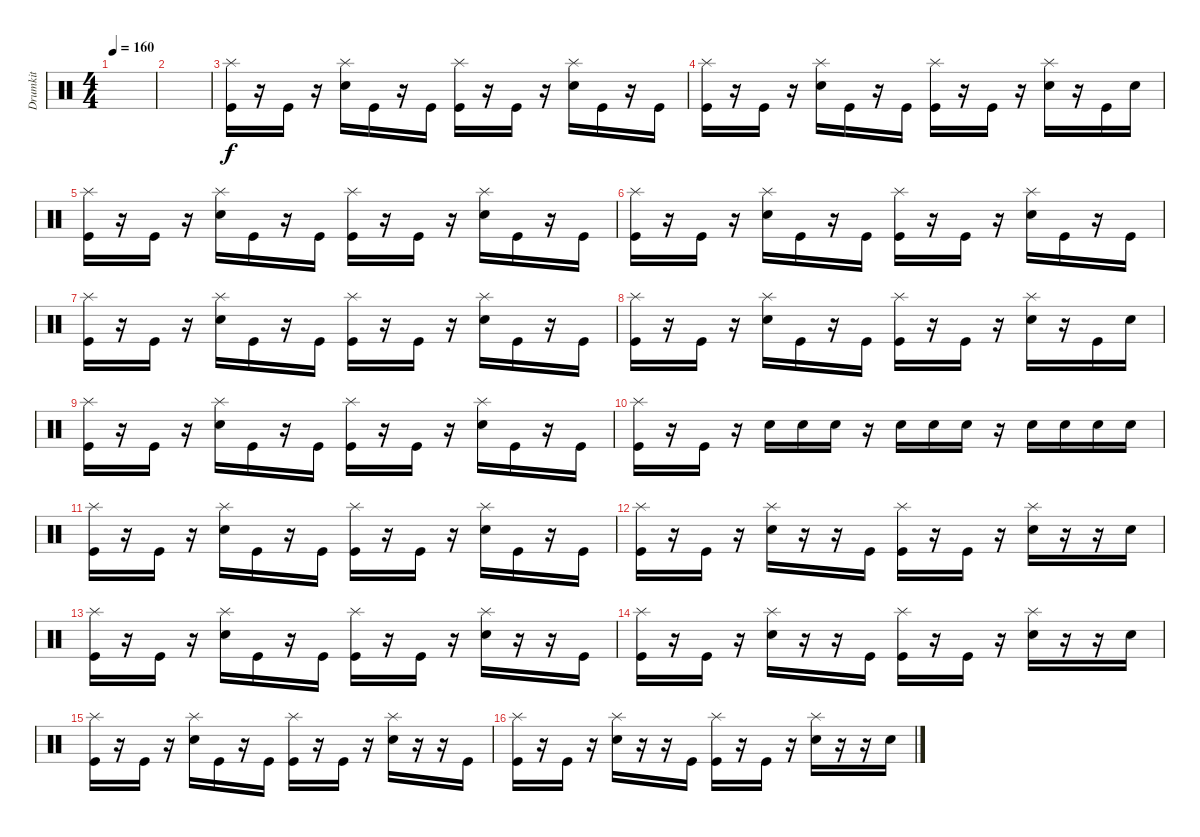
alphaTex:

\track ("Drumkit" "Drumkit") {instrument percussion}
\staff {score}
\articulation defaults
\ts (4 4)
\tempo 160
\clef neutral
\ks c
|
|
("Splash (hit)" "Kick (hit)").16 r.16 "Kick (hit)".16 r.16 ("Snare (hit) 2" "Splash (hit)").16 "Kick (hit)".16 r.16 "Kick (hit)".16 ("Kick (hit)" "Splash (hit)").16 r.16 "Kick (hit)".16 r.16 ("Snare (hit) 2" "Splash (hit)").16 "Kick (hit)".16 r.16 "Kick (hit)".16 |
("Kick (hit)" "Splash (hit)").16 r.16 "Kick (hit)".16 r.16 ("Snare (hit) 2" "Splash (hit)").16 "Kick (hit)".16 r.16 "Kick (hit)".16 ("Kick (hit)" "Splash (hit)").16 r.16 "Kick (hit)".16 r.16 ("Snare (hit) 2" "Splash (hit)").16 r.16 "Kick (hit)".16 "Snare (hit) 2".16 |
("Kick (hit)" "Splash (hit)").16 r.16 "Kick (hit)".16 r.16 ("Snare (hit) 2" "Splash (hit)").16 "Kick (hit)".16 r.16 "Kick (hit)".16 ("Kick (hit)" "Splash (hit)").16 r.16 "Kick (hit)".16 r.16 ("Snare (hit) 2" "Splash (hit)").16 "Kick (hit)".16 r.16 "Kick (hit)".16 |
("Splash (hit)" "Kick (hit)").16 r.16 "Kick (hit)".16 r.16 ("Snare (hit) 2" "Splash (hit)").16 "Kick (hit)".16 r.16 "Kick (hit)".16 ("Kick (hit)" "Splash (hit)").16 r.16 "Kick (hit)".16 r.16 ("Snare (hit) 2" "Splash (hit)").16 "Kick (hit)".16 r.16 "Kick (hit)".16 |
("Splash (hit)" "Kick (hit)").16 r.16 "Kick (hit)".16 r.16 ("Snare (hit) 2" "Splash (hit)").16 "Kick (hit)".16 r.16 "Kick (hit)".16 ("Kick (hit)" "Splash (hit)").16 r.16 "Kick (hit)".16 r.16 ("Snare (hit) 2" "Splash (hit)").16 "Kick (hit)".16 r.16 "Kick (hit)".16 |
("Kick (hit)" "Splash (hit)").16 r.16 "Kick (hit)".16 r.16 ("Snare (hit) 2" "Splash (hit)").16 "Kick (hit)".16 r.16 "Kick (hit)".16 ("Kick (hit)" "Splash (hit)").16 r.16 "Kick (hit)".16 r.16 ("Snare (hit) 2" "Splash (hit)").16 r.16 "Kick (hit)".16 "Snare (hit) 2".16 |
("Kick (hit)" "Splash (hit)").16 r.16 "Kick (hit)".16 r.16 ("Snare (hit) 2" "Splash (hit)").16 "Kick (hit)".16 r.16 "Kick (hit)".16 ("Kick (hit)" "Splash (hit)").16 r.16 "Kick (hit)".16 r.16 ("Snare (hit) 2" "Splash (hit)").16 "Kick (hit)".16 r.16 "Kick (hit)".16 |
("Kick (hit)" "Splash (hit)").16 r.16 "Kick (hit)".16 r.16 "Snare (hit) 2".16 "Snare (hit) 2".16 "Snare (hit) 2".16 r.16 "Snare (hit) 2".16 "Snare (hit) 2".16 "Snare (hit) 2".16 r.16 "Snare (hit) 2".16 "Snare (hit) 2".16 "Snare (hit) 2".16 "Snare (hit) 2".16 |
("Splash (hit)" "Kick (hit)").16 r.16 "Kick (hit)".16 r.16 ("Snare (hit) 2" "Splash (hit)").16 "Kick (hit)".16 r.16 "Kick (hit)".16 ("Kick (hit)" "Splash (hit)").16 r.16 "Kick (hit)".16 r.16 ("Snare (hit) 2" "Splash (hit)").16 "Kick (hit)".16 r.16 "Kick (hit)".16 |
("Kick (hit)" "Splash (hit)").16 r.16 "Kick (hit)".16 r.16 ("Snare (hit) 2" "Splash (hit)").16 r.16 r.16 "Kick (hit)".16 ("Kick (hit)" "Splash (hit)").16 r.16 "Kick (hit)".16 r.16 ("Snare (hit) 2" "Splash (hit)").16 r.16 r.16 "Snare (hit) 2".16 |
("Kick (hit)" "Splash (hit)").16 r.16 "Kick (hit)".16 r.16 ("Snare (hit) 2" "Splash (hit)").16 "Kick (hit)".16 r.16 "Kick (hit)".16 ("Kick (hit)" "Splash (hit)").16 r.16 "Kick (hit)".16 r.16 ("Snare (hit) 2" "Splash (hit)").16 r.16 r.16 "Kick (hit)".16 |
("Kick (hit)" "Splash (hit)").16 r.16 "Kick (hit)".16 r.16 ("Snare (hit) 2" "Splash (hit)").16 r.16 r.16 "Kick (hit)".16 ("Kick (hit)" "Splash (hit)").16 r.16 "Kick (hit)".16 r.16 ("Snare (hit) 2" "Splash (hit)").16 r.16 r.16 "Snare (hit) 2".16 |
("Splash (hit)" "Kick (hit)").16 r.16 "Kick (hit)".16 r.16 ("Snare (hit) 2" "Splash (hit)").16 "Kick (hit)".16 r.16 "Kick (hit)".16 ("Kick (hit)" "Splash (hit)").16 r.16 "Kick (hit)".16 r.16 ("Snare (hit) 2" "Splash (hit)").16 r.16 r.16 "Kick (hit)".16 |
("Kick (hit)" "Splash (hit)").16 r.16 "Kick (hit)".16 r.16 ("Snare (hit) 2" "Splash (hit)").16 r.16 r.16 "Kick (hit)".16 ("Kick (hit)" "Splash (hit)").16 r.16 "Kick (hit)".16 r.16 ("Snare (hit) 2" "Splash (hit)").16 r.16 r.16 "Snare (hit) 2".16
